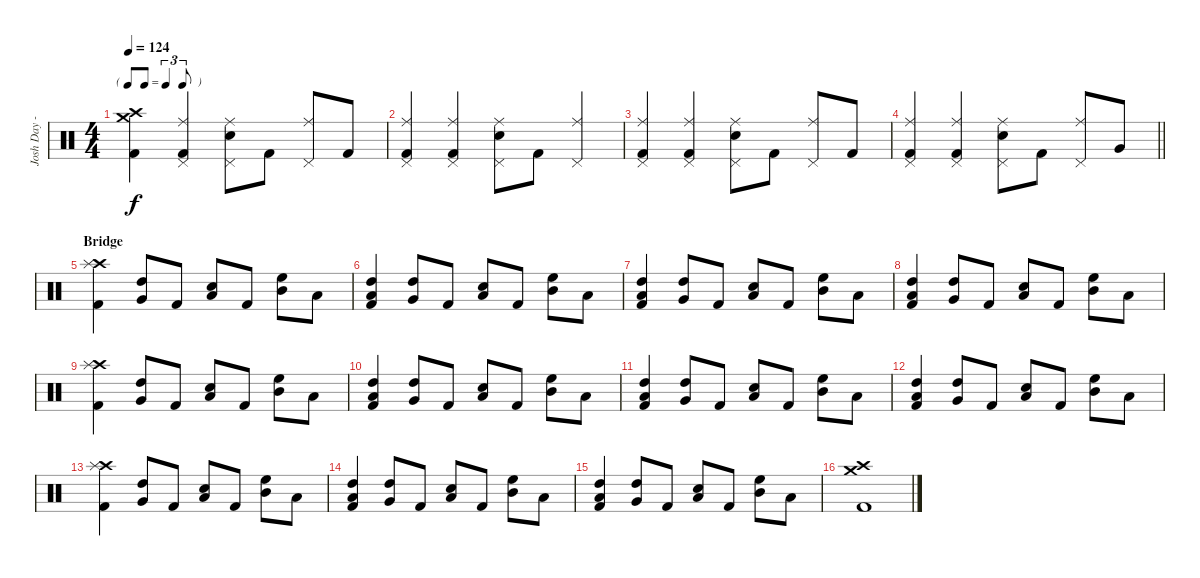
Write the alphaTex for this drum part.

\track ("Josh Day - Drums/Percussion" "Josh Day -") {instrument percussion}
\staff {score}
\articulation defaults
\ts (4 4)
\tf triplet8th
\tempo 124
\clef neutral
\ks c
("Crash medium (hit)" "Crash high (hit)" "Kick (hit) 2").4{dy f} ("Ride (middle)" "Pedal Hi-Hat (hit)" "Kick (hit) 2").4 ("Ride (middle)" "Snare (hit) 2" "Pedal Hi-Hat (hit)").8 "Kick (hit) 2".8 ("Ride (middle)" "Pedal Hi-Hat (hit)").8 "Kick (hit) 2".8 |
("Ride (middle)" "Pedal Hi-Hat (hit)" "Kick (hit) 2").4 ("Ride (middle)" "Pedal Hi-Hat (hit)" "Kick (hit) 2").4 ("Ride (middle)" "Snare (hit) 2" "Pedal Hi-Hat (hit)").8 "Kick (hit) 2".8 ("Ride (middle)" "Pedal Hi-Hat (hit)").4 |
("Ride (middle)" "Pedal Hi-Hat (hit)" "Kick (hit) 2").4 ("Ride (middle)" "Pedal Hi-Hat (hit)" "Kick (hit) 2").4 ("Ride (middle)" "Snare (hit) 2" "Pedal Hi-Hat (hit)").8 "Kick (hit) 2".8 ("Ride (middle)" "Pedal Hi-Hat (hit)").8 "Kick (hit) 2".8 |
\barLineRight lightlight
("Ride (middle)" "Pedal Hi-Hat (hit)" "Kick (hit) 2").4 ("Ride (middle)" "Pedal Hi-Hat (hit)" "Kick (hit) 2").4 ("Ride (middle)" "Snare (hit) 2" "Pedal Hi-Hat (hit)").8 "Kick (hit) 2".8 ("Ride (middle)" "Pedal Hi-Hat (hit)").8 "Very Low Tom (hit)".8 |
\section ("" "Bridge")
("Crash high (hit)" "Splash (hit)" "Kick (hit) 2").4 ("Very Low Tom (hit)" "High Tom (hit)").8 "Kick (hit) 2".8 ("Snare (hit) 2" "Low Tom (hit)").8 "Kick (hit) 2".8 ("Mid Tom (hit)" "High Floor Tom (hit)").8 "Low Floor Tom (hit)".8 |
("High Tom (hit)" "Low Tom (hit)" "Kick (hit) 2").4 ("Very Low Tom (hit)" "High Tom (hit)").8 "Kick (hit) 2".8 ("Snare (hit) 2" "Low Tom (hit)").8 "Kick (hit) 2".8 ("Mid Tom (hit)" "High Floor Tom (hit)").8 "Low Floor Tom (hit)".8 |
("High Tom (hit)" "Low Tom (hit)" "Kick (hit) 2").4 ("Very Low Tom (hit)" "High Tom (hit)").8 "Kick (hit) 2".8 ("Snare (hit) 2" "Low Tom (hit)").8 "Kick (hit) 2".8 ("Mid Tom (hit)" "High Floor Tom (hit)").8 "Low Floor Tom (hit)".8 |
("High Tom (hit)" "Low Tom (hit)" "Kick (hit) 2").4 ("Very Low Tom (hit)" "High Tom (hit)").8 "Kick (hit) 2".8 ("Snare (hit) 2" "Low Tom (hit)").8 "Kick (hit) 2".8 ("Mid Tom (hit)" "High Floor Tom (hit)").8 "Low Floor Tom (hit)".8 |
("Crash high (hit)" "Splash (hit)" "Kick (hit) 2").4 ("Very Low Tom (hit)" "High Tom (hit)").8 "Kick (hit) 2".8 ("Snare (hit) 2" "Low Tom (hit)").8 "Kick (hit) 2".8 ("Mid Tom (hit)" "High Floor Tom (hit)").8 "Low Floor Tom (hit)".8 |
("High Tom (hit)" "Low Tom (hit)" "Kick (hit) 2").4 ("Very Low Tom (hit)" "High Tom (hit)").8 "Kick (hit) 2".8 ("Snare (hit) 2" "Low Tom (hit)").8 "Kick (hit) 2".8 ("Mid Tom (hit)" "High Floor Tom (hit)").8 "Low Floor Tom (hit)".8 |
("High Tom (hit)" "Low Tom (hit)" "Kick (hit) 2").4 ("Very Low Tom (hit)" "High Tom (hit)").8 "Kick (hit) 2".8 ("Snare (hit) 2" "Low Tom (hit)").8 "Kick (hit) 2".8 ("Mid Tom (hit)" "High Floor Tom (hit)").8 "Low Floor Tom (hit)".8 |
("High Tom (hit)" "Low Tom (hit)" "Kick (hit) 2").4 ("Very Low Tom (hit)" "High Tom (hit)").8 "Kick (hit) 2".8 ("Snare (hit) 2" "Low Tom (hit)").8 "Kick (hit) 2".8 ("Mid Tom (hit)" "High Floor Tom (hit)").8 "Low Floor Tom (hit)".8 |
("Crash high (hit)" "Splash (hit)" "Kick (hit) 2").4 ("Very Low Tom (hit)" "High Tom (hit)").8 "Kick (hit) 2".8 ("Snare (hit) 2" "Low Tom (hit)").8 "Kick (hit) 2".8 ("Mid Tom (hit)" "High Floor Tom (hit)").8 "Low Floor Tom (hit)".8 |
("High Tom (hit)" "Low Tom (hit)" "Kick (hit) 2").4 ("Very Low Tom (hit)" "High Tom (hit)").8 "Kick (hit) 2".8 ("Snare (hit) 2" "Low Tom (hit)").8 "Kick (hit) 2".8 ("Mid Tom (hit)" "High Floor Tom (hit)").8 "Low Floor Tom (hit)".8 |
("High Tom (hit)" "Low Tom (hit)" "Kick (hit) 2").4 ("Very Low Tom (hit)" "High Tom (hit)").8 "Kick (hit) 2".8 ("Snare (hit) 2" "Low Tom (hit)").8 "Kick (hit) 2".8 ("Mid Tom (hit)" "High Floor Tom (hit)").8 "Low Floor Tom (hit)".8 |
("Crash medium (hit)" "Crash high (hit)" "Kick (hit) 2").1
